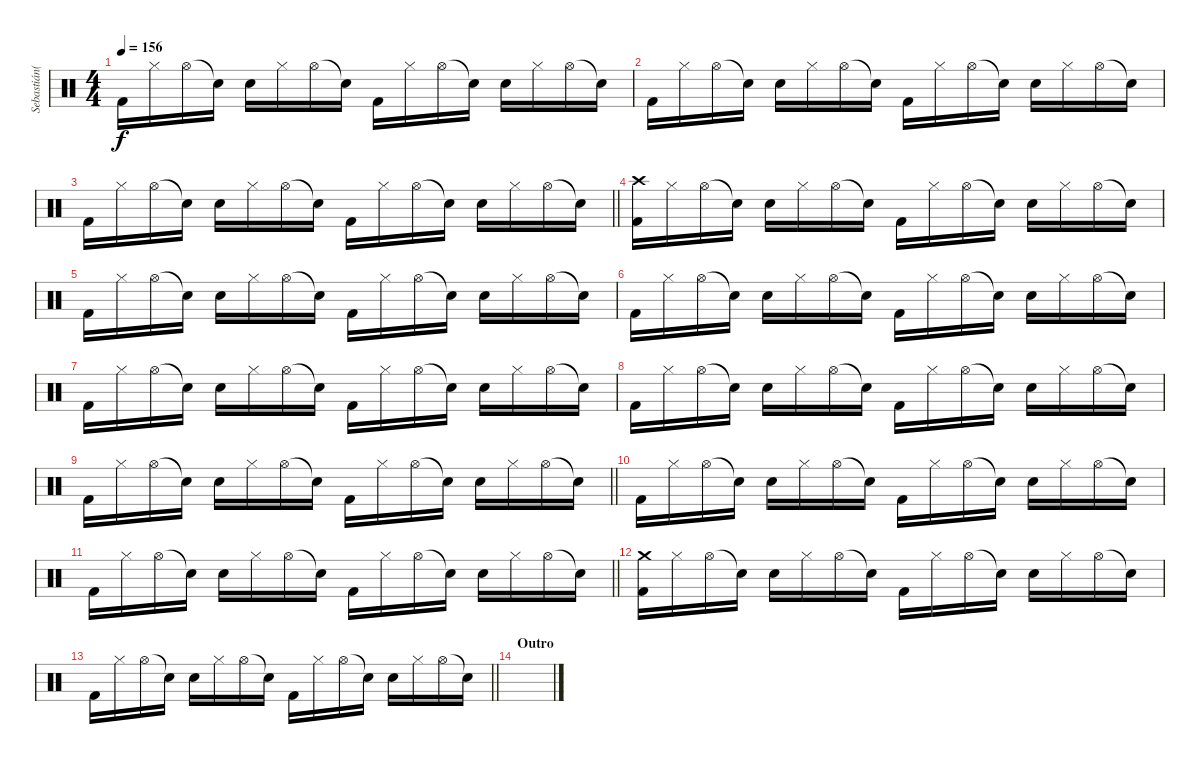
\track ("Sebastián(Percusión)" "Sebastián(") {instrument percussion}
\staff {score}
\articulation defaults
\ts (4 4)
\tempo 156
\clef neutral
\ks c "Kick (hit) 2".16{dy f} "Hi-Hat (closed)".16 "Hi-Hat (open)".16 "Snare (hit)"{t}.16 "Electric Snare (hit)".16 "Hi-Hat (closed)".16 "Hi-Hat (open)".16 "Snare (hit)"{t}.16 "Kick (hit) 2".16 "Hi-Hat (closed)".16 "Hi-Hat (open)".16 "Snare (hit)"{t}.16 "Electric Snare (hit)".16 "Hi-Hat (closed)".16 "Hi-Hat (open)".16 "Snare (hit)"{t}.16
|
"Kick (hit) 2".16 "Hi-Hat (closed)".16 "Hi-Hat (open)".16 "Snare (hit)"{t}.16 "Electric Snare (hit)".16 "Hi-Hat (closed)".16 "Hi-Hat (open)".16 "Snare (hit)"{t}.16 "Kick (hit) 2".16 "Hi-Hat (closed)".16 "Hi-Hat (open)".16 "Snare (hit)"{t}.16 "Electric Snare (hit)".16 "Hi-Hat (closed)".16 "Hi-Hat (open)".16 "Snare (hit)"{t}.16 |
\barLineRight lightlight "Kick (hit) 2".16 "Hi-Hat (closed)".16 "Hi-Hat (open)".16 "Snare (hit)"{t}.16 "Electric Snare (hit)".16 "Hi-Hat (closed)".16 "Hi-Hat (open)".16 "Snare (hit)"{t}.16 "Kick (hit) 2".16 "Hi-Hat (closed)".16 "Hi-Hat (open)".16 "Snare (hit)"{t}.16 "Electric Snare (hit)".16 "Hi-Hat (closed)".16 "Hi-Hat (open)".16 "Snare (hit)"{t}.16
|
\section ("" "")
("Crash high (hit)" "Kick (hit) 2").16 "Hi-Hat (closed)".16 "Hi-Hat (open)".16 "Snare (hit)"{t}.16 "Electric Snare (hit)".16 "Hi-Hat (closed)".16 "Hi-Hat (open)".16 "Snare (hit)"{t}.16 "Kick (hit) 2".16 "Hi-Hat (closed)".16 "Hi-Hat (open)".16 "Snare (hit)"{t}.16 "Electric Snare (hit)".16 "Hi-Hat (closed)".16 "Hi-Hat (open)".16 "Snare (hit)"{t}.16 |
"Kick (hit) 2".16 "Hi-Hat (closed)".16 "Hi-Hat (open)".16 "Snare (hit)"{t}.16 "Electric Snare (hit)".16 "Hi-Hat (closed)".16 "Hi-Hat (open)".16 "Snare (hit)"{t}.16 "Kick (hit) 2".16 "Hi-Hat (closed)".16 "Hi-Hat (open)".16 "Snare (hit)"{t}.16 "Electric Snare (hit)".16 "Hi-Hat (closed)".16 "Hi-Hat (open)".16 "Snare (hit)"{t}.16 |
"Kick (hit) 2".16 "Hi-Hat (closed)".16 "Hi-Hat (open)".16 "Snare (hit)"{t}.16 "Electric Snare (hit)".16 "Hi-Hat (closed)".16 "Hi-Hat (open)".16 "Snare (hit)"{t}.16 "Kick (hit) 2".16 "Hi-Hat (closed)".16 "Hi-Hat (open)".16 "Snare (hit)"{t}.16 "Electric Snare (hit)".16 "Hi-Hat (closed)".16 "Hi-Hat (open)".16 "Snare (hit)"{t}.16 |
"Kick (hit) 2".16 "Hi-Hat (closed)".16 "Hi-Hat (open)".16 "Snare (hit)"{t}.16 "Electric Snare (hit)".16 "Hi-Hat (closed)".16 "Hi-Hat (open)".16 "Snare (hit)"{t}.16 "Kick (hit) 2".16 "Hi-Hat (closed)".16 "Hi-Hat (open)".16 "Snare (hit)"{t}.16 "Electric Snare (hit)".16 "Hi-Hat (closed)".16 "Hi-Hat (open)".16 "Snare (hit)"{t}.16 |
"Kick (hit) 2".16 "Hi-Hat (closed)".16 "Hi-Hat (open)".16 "Snare (hit)"{t}.16 "Electric Snare (hit)".16 "Hi-Hat (closed)".16 "Hi-Hat (open)".16 "Snare (hit)"{t}.16 "Kick (hit) 2".16 "Hi-Hat (closed)".16 "Hi-Hat (open)".16 "Snare (hit)"{t}.16 "Electric Snare (hit)".16 "Hi-Hat (closed)".16 "Hi-Hat (open)".16 "Snare (hit)"{t}.16 |
\barLineRight lightlight "Kick (hit) 2".16 "Hi-Hat (closed)".16 "Hi-Hat (open)".16 "Snare (hit)"{t}.16 "Electric Snare (hit)".16 "Hi-Hat (closed)".16 "Hi-Hat (open)".16 "Snare (hit)"{t}.16 "Kick (hit) 2".16 "Hi-Hat (closed)".16 "Hi-Hat (open)".16 "Snare (hit)"{t}.16 "Electric Snare (hit)".16 "Hi-Hat (closed)".16 "Hi-Hat (open)".16 "Snare (hit)"{t}.16
|
\section ("" "")
"Kick (hit) 2".16 "Hi-Hat (closed)".16 "Hi-Hat (open)".16 "Snare (hit)"{t}.16 "Electric Snare (hit)".16 "Hi-Hat (closed)".16 "Hi-Hat (open)".16 "Snare (hit)"{t}.16 "Kick (hit) 2".16 "Hi-Hat (closed)".16 "Hi-Hat (open)".16 "Snare (hit)"{t}.16 "Electric Snare (hit)".16 "Hi-Hat (closed)".16 "Hi-Hat (open)".16 "Snare (hit)"{t}.16 |
\barLineRight lightlight "Kick (hit) 2".16 "Hi-Hat (closed)".16 "Hi-Hat (open)".16 "Snare (hit)"{t}.16 "Electric Snare (hit)".16 "Hi-Hat (closed)".16 "Hi-Hat (open)".16 "Snare (hit)"{t}.16 "Kick (hit) 2".16 "Hi-Hat (closed)".16 "Hi-Hat (open)".16 "Snare (hit)"{t}.16 "Electric Snare (hit)".16 "Hi-Hat (closed)".16 "Hi-Hat (open)".16 "Snare (hit)"{t}.16
|
("Crash medium (hit)" "Kick (hit) 2").16 "Hi-Hat (closed)".16 "Hi-Hat (open)".16 "Snare (hit)"{t}.16 "Electric Snare (hit)".16 "Hi-Hat (closed)".16 "Hi-Hat (open)".16 "Snare (hit)"{t}.16 "Kick (hit) 2".16 "Hi-Hat (closed)".16 "Hi-Hat (open)".16 "Snare (hit)"{t}.16 "Electric Snare (hit)".16 "Hi-Hat (closed)".16 "Hi-Hat (open)".16 "Snare (hit)"{t}.16 |
\barLineRight lightlight "Kick (hit) 2".16 "Hi-Hat (closed)".16 "Hi-Hat (open)".16 "Snare (hit)"{t}.16 "Electric Snare (hit)".16 "Hi-Hat (closed)".16 "Hi-Hat (open)".16 "Snare (hit)"{t}.16 "Kick (hit) 2".16 "Hi-Hat (closed)".16 "Hi-Hat (open)".16 "Snare (hit)"{t}.16 "Electric Snare (hit)".16 "Hi-Hat (closed)".16 "Hi-Hat (open)".16 "Snare (hit)"{t}.16
|
\section ("" "Outro")
